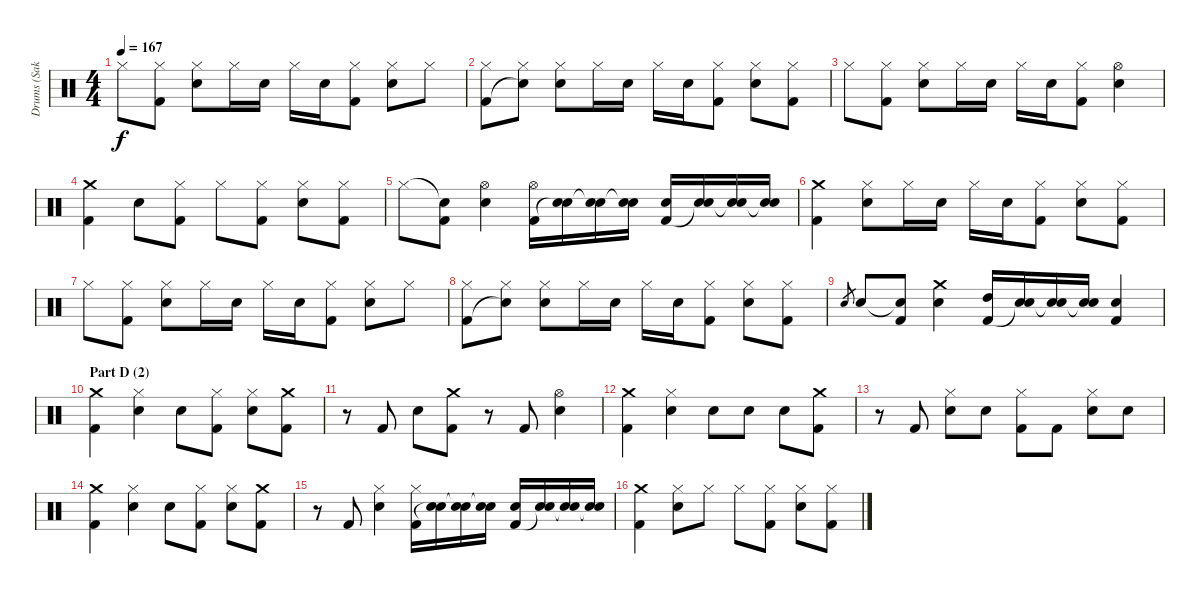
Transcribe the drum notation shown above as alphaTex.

\track ("Drums (Sakura)" "Drums (Sak") {instrument percussion}
\staff {score}
\articulation defaults
\ts (4 4)
\tempo 167
\clef neutral
\ks c "Hi-Hat (closed)".8{dy f}
("Hi-Hat (closed)" "Kick (hit) 2").8 ("Hi-Hat (closed)" "Electric Snare (hit)").8 "Hi-Hat (closed)".16 "Electric Snare (hit)".16 "Hi-Hat (closed)".16 "Electric Snare (hit)".16 ("Hi-Hat (closed)" "Kick (hit) 2").8 ("Hi-Hat (closed)" "Electric Snare (hit)").8 "Hi-Hat (closed)".8 |
("Hi-Hat (closed)" "Kick (hit) 2").8 ("Hi-Hat (closed)" "Snare (hit)"{t}).8 ("Hi-Hat (closed)" "Electric Snare (hit)").8 "Hi-Hat (closed)".16 "Electric Snare (hit)".16 "Hi-Hat (closed)".16 "Electric Snare (hit)".16 ("Hi-Hat (closed)" "Kick (hit) 2").8 ("Hi-Hat (closed)" "Electric Snare (hit)").8 ("Hi-Hat (closed)" "Kick (hit) 2").8 |
"Hi-Hat (closed)".8 ("Hi-Hat (closed)" "Kick (hit) 2").8 ("Hi-Hat (closed)" "Electric Snare (hit)").8 "Hi-Hat (closed)".16 "Electric Snare (hit)".16 "Hi-Hat (closed)".16 "Electric Snare (hit)".16 ("Hi-Hat (closed)" "Kick (hit) 2").8 ("Hi-Hat (open)" "Electric Snare (hit)").4 |
("Crash medium (hit)" "Kick (hit) 2").4 "Electric Snare (hit)".8 ("Hi-Hat (closed)" "Kick (hit) 2").8 "Hi-Hat (closed)".8 ("Hi-Hat (closed)" "Kick (hit) 2").8 ("Hi-Hat (closed)" "Electric Snare (hit)").8 ("Hi-Hat (closed)" "Kick (hit) 2").8 |
"Hi-Hat (closed)".8 ("Snare (hit)"{t} "Kick (hit) 2").8 ("Hi-Hat (open)" "Electric Snare (hit)").4 ("Hi-Hat (open)" "Kick (hit) 2").16 ("Electric Snare (hit)" "Snare (hit)"{t}).16 ("Electric Snare (hit)" "Snare (hit)"{t}).16 ("Electric Snare (hit)" "Snare (hit)"{t}).16 ("Electric Snare (hit)" "Kick (hit) 2").16 ("Electric Snare (hit)" "Snare (hit)"{t}).16 ("Electric Snare (hit)" "Snare (hit)"{t}).16 ("Electric Snare (hit)" "Snare (hit)"{t}).16 |
("Crash medium (hit)" "Kick (hit) 2").4 ("Hi-Hat (closed)" "Electric Snare (hit)").8 "Hi-Hat (closed)".16 "Electric Snare (hit)".16 "Hi-Hat (closed)".16 "Electric Snare (hit)".16 ("Hi-Hat (closed)" "Kick (hit) 2").8 ("Hi-Hat (closed)" "Electric Snare (hit)").8 ("Hi-Hat (closed)" "Kick (hit) 2").8 |
"Hi-Hat (closed)".8 ("Hi-Hat (closed)" "Kick (hit) 2").8 ("Hi-Hat (closed)" "Electric Snare (hit)").8 "Hi-Hat (closed)".16 "Electric Snare (hit)".16 "Hi-Hat (closed)".16 "Electric Snare (hit)".16 ("Hi-Hat (closed)" "Kick (hit) 2").8 ("Hi-Hat (closed)" "Electric Snare (hit)").8 "Hi-Hat (closed)".8 |
("Hi-Hat (closed)" "Kick (hit) 2").8 ("Hi-Hat (closed)" "Snare (hit)"{t}).8 ("Hi-Hat (closed)" "Electric Snare (hit)").8 "Hi-Hat (closed)".16 "Electric Snare (hit)".16 "Hi-Hat (closed)".16 "Electric Snare (hit)".16 ("Hi-Hat (closed)" "Kick (hit) 2").8 ("Hi-Hat (closed)" "Electric Snare (hit)").8 ("Hi-Hat (closed)" "Kick (hit) 2").8 |
"Electric Snare (hit)".8{gr} "Electric Snare (hit)".8 ("Snare (hit)"{t} "Kick (hit) 2").8 ("Crash medium (hit)" "Electric Snare (hit)").4 ("High Tom (hit)" "Kick (hit) 2").16 ("Electric Snare (hit)" "Snare (hit)"{t}).16 ("Electric Snare (hit)" "Snare (hit)"{t}).16 ("Electric Snare (hit)" "Snare (hit)"{t}).16 ("Electric Snare (hit)" "Kick (hit) 2").4 |
\section ("" "Part D (2)")
("Crash medium (hit)" "Kick (hit) 2").4 ("Hi-Hat (closed)" "Electric Snare (hit)").4 "Electric Snare (hit)".8 ("Hi-Hat (closed)" "Kick (hit) 2").8 ("Hi-Hat (closed)" "Electric Snare (hit)").8 ("Crash medium (hit)" "Kick (hit) 2").8 |
r.8 "Kick (hit) 2".8 "Electric Snare (hit)".8 ("Crash medium (hit)" "Kick (hit) 2").8 r.8 "Kick (hit) 2".8 ("Hi-Hat (open)" "Electric Snare (hit)").4 |
("Crash medium (hit)" "Kick (hit) 2").4 ("Hi-Hat (closed)" "Electric Snare (hit)").4 "Electric Snare (hit)".8 "Electric Snare (hit)".8 "Electric Snare (hit)".8 ("Crash medium (hit)" "Kick (hit) 2").8 |
r.8 "Kick (hit) 2".8 ("Hi-Hat (closed)" "Electric Snare (hit)").8 "Electric Snare (hit)".8 ("Hi-Hat (closed)" "Kick (hit) 2").8 "Kick (hit) 2".8 ("Hi-Hat (closed)" "Electric Snare (hit)").8 "Electric Snare (hit)".8 |
("Crash medium (hit)" "Kick (hit) 2").4 ("Hi-Hat (closed)" "Electric Snare (hit)").4 "Electric Snare (hit)".8 ("Hi-Hat (closed)" "Kick (hit) 2").8 ("Hi-Hat (closed)" "Electric Snare (hit)").8 ("Crash medium (hit)" "Kick (hit) 2").8 |
r.8 "Kick (hit) 2".8 ("Hi-Hat (closed)" "Electric Snare (hit)").4 ("Hi-Hat (closed)" "Kick (hit) 2").16 ("Electric Snare (hit)" "Snare (hit)"{t}).16 ("Electric Snare (hit)" "Snare (hit)"{t}).16 ("Electric Snare (hit)" "Snare (hit)"{t}).16 ("Electric Snare (hit)" "Kick (hit) 2").16 ("Electric Snare (hit)" "Snare (hit)"{t}).16 ("Electric Snare (hit)" "Snare (hit)"{t}).16 ("Electric Snare (hit)" "Snare (hit)"{t}).16 |
("Crash medium (hit)" "Kick (hit) 2").4 ("Hi-Hat (closed)" "Electric Snare (hit)").8 "Hi-Hat (closed)".8 "Hi-Hat (closed)".8 ("Hi-Hat (closed)" "Kick (hit) 2").8 ("Hi-Hat (closed)" "Electric Snare (hit)").8 ("Hi-Hat (closed)" "Kick (hit) 2").8
